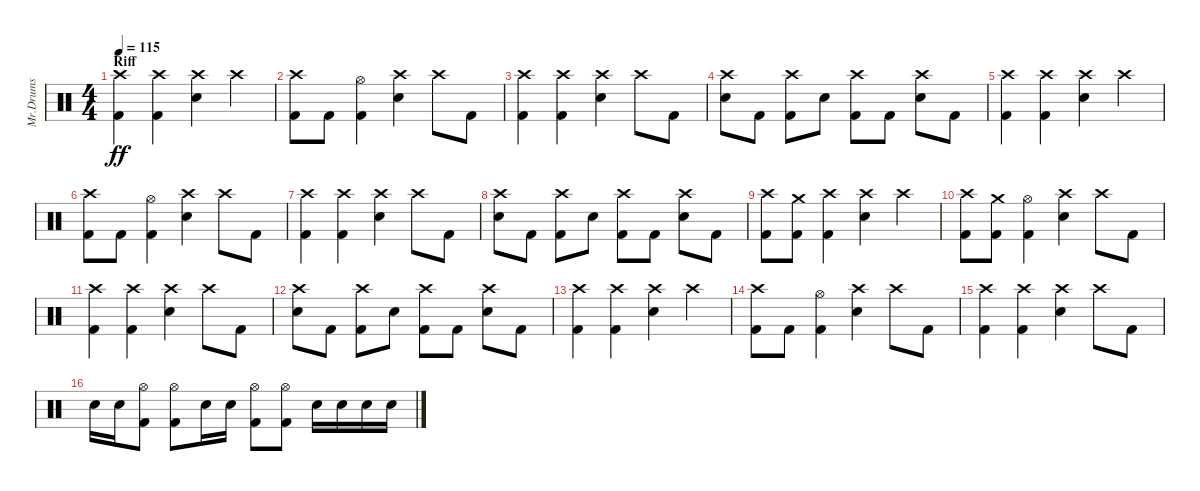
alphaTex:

\track ("Mr.Drums" "Mr.Drums") {instrument percussion}
\staff {score}
\articulation defaults
\ts (4 4)
\section ("" "Riff")
\tempo 115
\clef neutral
\ks c
("Crash high (hit)" "Kick (hit) 2").4{dy ff} ("Crash high (hit)" "Kick (hit) 2").4 ("Crash high (hit)" "Electric Snare (hit)").4 "Crash high (hit)".4 |
("Crash high (hit)" "Kick (hit) 2").8 "Kick (hit) 2".8 ("Hi-Hat (open)" "Kick (hit) 2").4 ("Crash high (hit)" "Electric Snare (hit)").4 "Crash high (hit)".8 "Kick (hit) 2".8 |
("Crash high (hit)" "Kick (hit) 2").4 ("Crash high (hit)" "Kick (hit) 2").4 ("Crash high (hit)" "Electric Snare (hit)").4 "Crash high (hit)".8 "Kick (hit) 2".8 |
("Crash high (hit)" "Electric Snare (hit)").8 "Kick (hit) 2".8 ("Crash high (hit)" "Kick (hit) 2").8 "Electric Snare (hit)".8 ("Crash high (hit)" "Kick (hit) 2").8 "Kick (hit) 2".8 ("Crash high (hit)" "Electric Snare (hit)").8 "Kick (hit) 2".8 |
("Crash high (hit)" "Kick (hit) 2").4 ("Crash high (hit)" "Kick (hit) 2").4 ("Crash high (hit)" "Electric Snare (hit)").4 "Crash high (hit)".4 |
("Crash high (hit)" "Kick (hit) 2").8 "Kick (hit) 2".8 ("Hi-Hat (open)" "Kick (hit) 2").4 ("Crash high (hit)" "Electric Snare (hit)").4 "Crash high (hit)".8 "Kick (hit) 2".8 |
("Crash high (hit)" "Kick (hit) 2").4 ("Crash high (hit)" "Kick (hit) 2").4 ("Crash high (hit)" "Electric Snare (hit)").4 "Crash high (hit)".8 "Kick (hit) 2".8 |
("Crash high (hit)" "Electric Snare (hit)").8 "Kick (hit) 2".8 ("Crash high (hit)" "Kick (hit) 2").8 "Electric Snare (hit)".8 ("Crash high (hit)" "Kick (hit) 2").8 "Kick (hit) 2".8 ("Crash high (hit)" "Electric Snare (hit)").8 "Kick (hit) 2".8 |
("Crash high (hit)" "Kick (hit) 2").8 ("Crash medium (hit)" "Kick (hit) 2").8 ("Crash high (hit)" "Kick (hit) 2").4 ("Crash high (hit)" "Electric Snare (hit)").4 "Crash high (hit)".4 |
("Crash high (hit)" "Kick (hit) 2").8 ("Crash medium (hit)" "Kick (hit) 2").8 ("Hi-Hat (open)" "Kick (hit) 2").4 ("Crash high (hit)" "Electric Snare (hit)").4 "Crash high (hit)".8 "Kick (hit) 2".8 |
("Crash high (hit)" "Kick (hit) 2").4 ("Crash high (hit)" "Kick (hit) 2").4 ("Crash high (hit)" "Electric Snare (hit)").4 "Crash high (hit)".8 "Kick (hit) 2".8 |
("Crash high (hit)" "Electric Snare (hit)").8 "Kick (hit) 2".8 ("Crash high (hit)" "Kick (hit) 2").8 "Electric Snare (hit)".8 ("Crash high (hit)" "Kick (hit) 2").8 "Kick (hit) 2".8 ("Crash high (hit)" "Electric Snare (hit)").8 "Kick (hit) 2".8 |
("Crash high (hit)" "Kick (hit) 2").4 ("Crash high (hit)" "Kick (hit) 2").4 ("Crash high (hit)" "Electric Snare (hit)").4 "Crash high (hit)".4 |
("Crash high (hit)" "Kick (hit) 2").8 "Kick (hit) 2".8 ("Hi-Hat (open)" "Kick (hit) 2").4 ("Crash high (hit)" "Electric Snare (hit)").4 "Crash high (hit)".8 "Kick (hit) 2".8 |
("Crash high (hit)" "Kick (hit) 2").4 ("Crash high (hit)" "Kick (hit) 2").4 ("Crash high (hit)" "Electric Snare (hit)").4 "Crash high (hit)".8 "Kick (hit) 2".8 |
"Electric Snare (hit)".16 "Electric Snare (hit)".16 ("Hi-Hat (open)" "Kick (hit) 2").8 ("Hi-Hat (open)" "Kick (hit) 2").8 "Electric Snare (hit)".16 "Electric Snare (hit)".16 ("Hi-Hat (open)" "Kick (hit) 2").8 ("Hi-Hat (open)" "Kick (hit) 2").8 "Electric Snare (hit)".16 "Electric Snare (hit)".16 "Electric Snare (hit)".16 "Electric Snare (hit)".16
